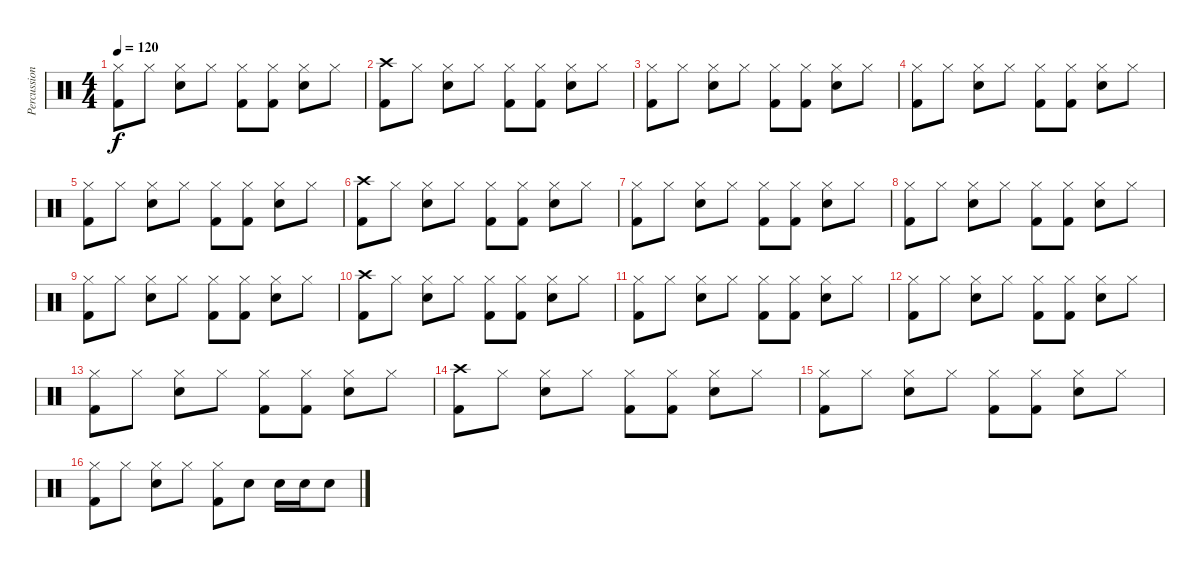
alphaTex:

\track ("Percussion" "Percussion") {instrument percussion}
\staff {score}
\articulation defaults
\ts (4 4)
\tempo 120
\clef neutral
\ks c
("Hi-Hat (closed)" "Kick (hit) 2").8{dy f} "Hi-Hat (closed)".8 ("Hi-Hat (closed)" "Electric Snare (hit)").8 "Hi-Hat (closed)".8 ("Hi-Hat (closed)" "Kick (hit) 2").8 ("Hi-Hat (closed)" "Kick (hit) 2").8 ("Hi-Hat (closed)" "Electric Snare (hit)").8 "Hi-Hat (closed)".8 |
("Crash high (hit)" "Kick (hit) 2").8 "Hi-Hat (closed)".8 ("Hi-Hat (closed)" "Electric Snare (hit)").8 "Hi-Hat (closed)".8 ("Hi-Hat (closed)" "Kick (hit) 2").8 ("Hi-Hat (closed)" "Kick (hit) 2").8 ("Hi-Hat (closed)" "Electric Snare (hit)").8 "Hi-Hat (closed)".8 |
("Hi-Hat (closed)" "Kick (hit) 2").8 "Hi-Hat (closed)".8 ("Hi-Hat (closed)" "Electric Snare (hit)").8 "Hi-Hat (closed)".8 ("Hi-Hat (closed)" "Kick (hit) 2").8 ("Hi-Hat (closed)" "Kick (hit) 2").8 ("Hi-Hat (closed)" "Electric Snare (hit)").8 "Hi-Hat (closed)".8 |
("Hi-Hat (closed)" "Kick (hit) 2").8 "Hi-Hat (closed)".8 ("Hi-Hat (closed)" "Electric Snare (hit)").8 "Hi-Hat (closed)".8 ("Hi-Hat (closed)" "Kick (hit) 2").8 ("Hi-Hat (closed)" "Kick (hit) 2").8 ("Hi-Hat (closed)" "Electric Snare (hit)").8 "Hi-Hat (closed)".8 |
("Hi-Hat (closed)" "Kick (hit) 2").8 "Hi-Hat (closed)".8 ("Hi-Hat (closed)" "Electric Snare (hit)").8 "Hi-Hat (closed)".8 ("Hi-Hat (closed)" "Kick (hit) 2").8 ("Hi-Hat (closed)" "Kick (hit) 2").8 ("Hi-Hat (closed)" "Electric Snare (hit)").8 "Hi-Hat (closed)".8 |
("Crash high (hit)" "Kick (hit) 2").8 "Hi-Hat (closed)".8 ("Hi-Hat (closed)" "Electric Snare (hit)").8 "Hi-Hat (closed)".8 ("Hi-Hat (closed)" "Kick (hit) 2").8 ("Hi-Hat (closed)" "Kick (hit) 2").8 ("Hi-Hat (closed)" "Electric Snare (hit)").8 "Hi-Hat (closed)".8 |
("Hi-Hat (closed)" "Kick (hit) 2").8 "Hi-Hat (closed)".8 ("Hi-Hat (closed)" "Electric Snare (hit)").8 "Hi-Hat (closed)".8 ("Hi-Hat (closed)" "Kick (hit) 2").8 ("Hi-Hat (closed)" "Kick (hit) 2").8 ("Hi-Hat (closed)" "Electric Snare (hit)").8 "Hi-Hat (closed)".8 |
("Hi-Hat (closed)" "Kick (hit) 2").8 "Hi-Hat (closed)".8 ("Hi-Hat (closed)" "Electric Snare (hit)").8 "Hi-Hat (closed)".8 ("Hi-Hat (closed)" "Kick (hit) 2").8 ("Hi-Hat (closed)" "Kick (hit) 2").8 ("Hi-Hat (closed)" "Electric Snare (hit)").8 "Hi-Hat (closed)".8 |
("Hi-Hat (closed)" "Kick (hit) 2").8 "Hi-Hat (closed)".8 ("Hi-Hat (closed)" "Electric Snare (hit)").8 "Hi-Hat (closed)".8 ("Hi-Hat (closed)" "Kick (hit) 2").8 ("Hi-Hat (closed)" "Kick (hit) 2").8 ("Hi-Hat (closed)" "Electric Snare (hit)").8 "Hi-Hat (closed)".8 |
("Crash high (hit)" "Kick (hit) 2").8 "Hi-Hat (closed)".8 ("Hi-Hat (closed)" "Electric Snare (hit)").8 "Hi-Hat (closed)".8 ("Hi-Hat (closed)" "Kick (hit) 2").8 ("Hi-Hat (closed)" "Kick (hit) 2").8 ("Hi-Hat (closed)" "Electric Snare (hit)").8 "Hi-Hat (closed)".8 |
("Hi-Hat (closed)" "Kick (hit) 2").8 "Hi-Hat (closed)".8 ("Hi-Hat (closed)" "Electric Snare (hit)").8 "Hi-Hat (closed)".8 ("Hi-Hat (closed)" "Kick (hit) 2").8 ("Hi-Hat (closed)" "Kick (hit) 2").8 ("Hi-Hat (closed)" "Electric Snare (hit)").8 "Hi-Hat (closed)".8 |
("Hi-Hat (closed)" "Kick (hit) 2").8 "Hi-Hat (closed)".8 ("Hi-Hat (closed)" "Electric Snare (hit)").8 "Hi-Hat (closed)".8 ("Hi-Hat (closed)" "Kick (hit) 2").8 ("Hi-Hat (closed)" "Kick (hit) 2").8 ("Hi-Hat (closed)" "Electric Snare (hit)").8 "Hi-Hat (closed)".8 |
("Hi-Hat (closed)" "Kick (hit) 2").8 "Hi-Hat (closed)".8 ("Hi-Hat (closed)" "Electric Snare (hit)").8 "Hi-Hat (closed)".8 ("Hi-Hat (closed)" "Kick (hit) 2").8 ("Hi-Hat (closed)" "Kick (hit) 2").8 ("Hi-Hat (closed)" "Electric Snare (hit)").8 "Hi-Hat (closed)".8 |
("Crash high (hit)" "Kick (hit) 2").8 "Hi-Hat (closed)".8 ("Hi-Hat (closed)" "Electric Snare (hit)").8 "Hi-Hat (closed)".8 ("Hi-Hat (closed)" "Kick (hit) 2").8 ("Hi-Hat (closed)" "Kick (hit) 2").8 ("Hi-Hat (closed)" "Electric Snare (hit)").8 "Hi-Hat (closed)".8 |
("Hi-Hat (closed)" "Kick (hit) 2").8 "Hi-Hat (closed)".8 ("Hi-Hat (closed)" "Electric Snare (hit)").8 "Hi-Hat (closed)".8 ("Hi-Hat (closed)" "Kick (hit) 2").8 ("Hi-Hat (closed)" "Kick (hit) 2").8 ("Hi-Hat (closed)" "Electric Snare (hit)").8 "Hi-Hat (closed)".8 |
("Hi-Hat (closed)" "Kick (hit) 2").8 "Hi-Hat (closed)".8 ("Hi-Hat (closed)" "Electric Snare (hit)").8 "Hi-Hat (closed)".8 ("Hi-Hat (closed)" "Kick (hit) 2").8 "Electric Snare (hit)".8 "Electric Snare (hit)".16 "Electric Snare (hit)".16 "Electric Snare (hit)".8
